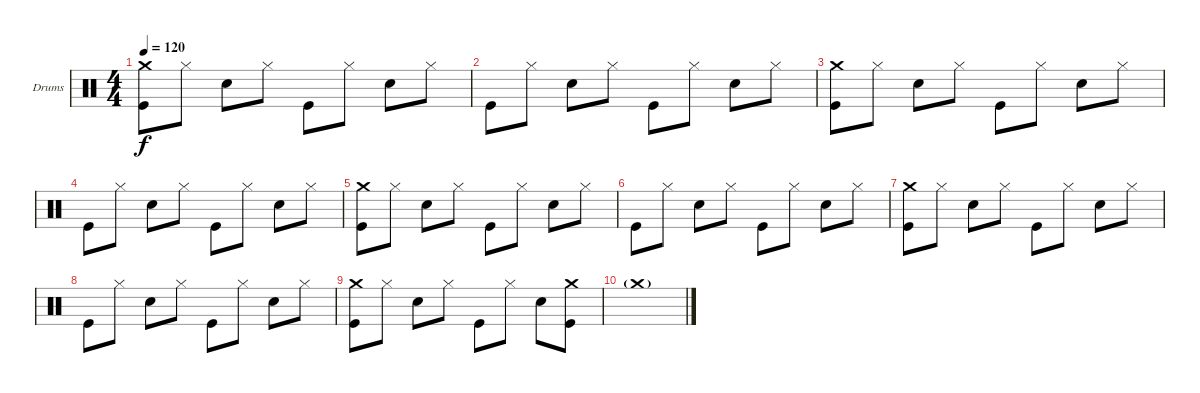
\defaultSystemsLayout 4
\bracketExtendMode groupsimilarinstruments
\firstSystemTrackNameOrientation horizontal
\otherSystemsTrackNameOrientation horizontal
\track ("Е. Кулаков" "Drums") {instrument percussion}
\staff {score}
\articulation defaults
\ts (4 4)
\tempo 120
\clef neutral
\ks c
("Kick (hit)" "Crash medium (hit)").8{dy f} "Hi-Hat (closed)".8 "Snare (hit) 2".8 "Hi-Hat (closed)".8 "Kick (hit)".8 "Hi-Hat (closed)".8 "Snare (hit) 2".8 "Hi-Hat (closed)".8 |
"Kick (hit)".8 "Hi-Hat (closed)".8 "Snare (hit) 2".8 "Hi-Hat (closed)".8 "Kick (hit)".8 "Hi-Hat (closed)".8 "Snare (hit) 2".8 "Hi-Hat (closed)".8 |
("Kick (hit)" "Crash medium (hit)").8 "Hi-Hat (closed)".8 "Snare (hit) 2".8 "Hi-Hat (closed)".8 "Kick (hit)".8 "Hi-Hat (closed)".8 "Snare (hit) 2".8 "Hi-Hat (closed)".8 |
"Kick (hit)".8 "Hi-Hat (closed)".8 "Snare (hit) 2".8 "Hi-Hat (closed)".8 "Kick (hit)".8 "Hi-Hat (closed)".8 "Snare (hit) 2".8 "Hi-Hat (closed)".8 |
("Kick (hit)" "Crash medium (hit)").8 "Hi-Hat (closed)".8 "Snare (hit) 2".8 "Hi-Hat (closed)".8 "Kick (hit)".8 "Hi-Hat (closed)".8 "Snare (hit) 2".8 "Hi-Hat (closed)".8 |
"Kick (hit)".8 "Hi-Hat (closed)".8 "Snare (hit) 2".8 "Hi-Hat (closed)".8 "Kick (hit)".8 "Hi-Hat (closed)".8 "Snare (hit) 2".8 "Hi-Hat (closed)".8 |
("Kick (hit)" "Crash medium (hit)").8 "Hi-Hat (closed)".8 "Snare (hit) 2".8 "Hi-Hat (closed)".8 "Kick (hit)".8 "Hi-Hat (closed)".8 "Snare (hit) 2".8 "Hi-Hat (closed)".8 |
"Kick (hit)".8 "Hi-Hat (closed)".8 "Snare (hit) 2".8 "Hi-Hat (closed)".8 "Kick (hit)".8 "Hi-Hat (closed)".8 "Snare (hit) 2".8 "Hi-Hat (closed)".8 |
("Kick (hit)" "Crash medium (hit)").8 "Hi-Hat (closed)".8 "Snare (hit) 2".8 "Hi-Hat (closed)".8 "Kick (hit)".8 "Hi-Hat (closed)".8 "Snare (hit) 2".8 ("Kick (hit)" "Crash medium (hit)").8 |
"Crash medium (hit)"{g}.1
